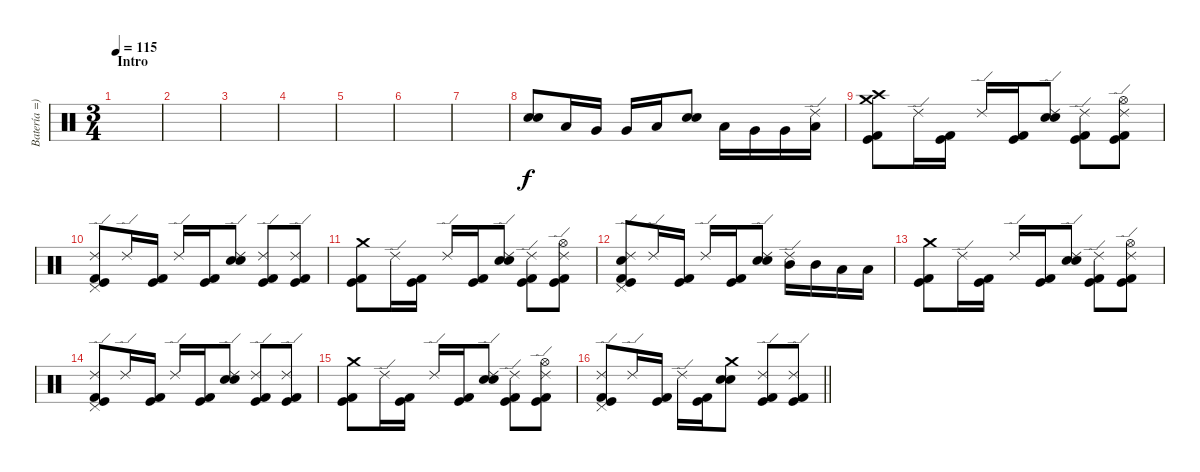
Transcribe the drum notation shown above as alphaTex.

\track ("Batería =)" "Batería =)") {instrument percussion}
\staff {score}
\articulation defaults
\ts (3 4)
\section ("" "Intro")
\tempo 115
\clef neutral
\ks c
|
|
|
|
|
|
|
("Electric Snare (hit)" "Snare (hit) 2").8 "Low Tom (hit)".16 "Very Low Tom (hit)".16 "Very Low Tom (hit)".16 "Low Tom (hit)".16 ("Electric Snare (hit)" "Snare (hit) 2").8 "Low Tom (hit)".16 "Very Low Tom (hit)".16 "Very Low Tom (hit)".16 ("Ride (edge) 2" "Low Tom (hit)").16 |
("Crash high (hit)" "Crash medium (hit)" "Kick (hit)" "Kick (hit) 2").8 "Ride (edge) 2".16 ("Kick (hit)" "Kick (hit) 2").16 "Ride (edge) 2".16 ("Kick (hit)" "Kick (hit) 2").16 ("Ride (edge) 2" "Electric Snare (hit)" "Snare (hit) 2").8 ("Ride (edge) 2" "Kick (hit) 2" "Kick (hit)").8 ("Ride (edge) 2" "Hi-Hat (open)" "Kick (hit) 2" "Kick (hit)").8 |
("Ride (edge) 2" "Pedal Hi-Hat (hit)" "Kick (hit)" "Kick (hit) 2").8 "Ride (edge) 2".16 ("Kick (hit)" "Kick (hit) 2").16 "Ride (edge) 2".16 ("Kick (hit)" "Kick (hit) 2").16 ("Ride (edge) 2" "Electric Snare (hit)" "Snare (hit) 2").8 ("Ride (edge) 2" "Kick (hit) 2" "Kick (hit)").8 ("Ride (edge) 2" "Kick (hit) 2" "Kick (hit)").8 |
("Crash medium (hit)" "Kick (hit)" "Kick (hit) 2").8 "Ride (edge) 2".16 ("Kick (hit)" "Kick (hit) 2").16 "Ride (edge) 2".16 ("Kick (hit)" "Kick (hit) 2").16 ("Ride (edge) 2" "Electric Snare (hit)" "Snare (hit) 2").8 ("Ride (edge) 2" "Kick (hit) 2" "Kick (hit)").8 ("Ride (edge) 2" "Hi-Hat (open)" "Kick (hit) 2" "Kick (hit)").8 |
("Ride (edge) 2" "Pedal Hi-Hat (hit)" "Snare (hit) 2" "Kick (hit)" "Kick (hit) 2").8 "Ride (edge) 2".16 ("Kick (hit)" "Kick (hit) 2").16 "Ride (edge) 2".16 ("Kick (hit)" "Kick (hit) 2").16 ("Ride (edge) 2" "Electric Snare (hit)" "Snare (hit) 2").8 ("Ride (edge) 2" "Mid Tom (hit)").16 "Mid Tom (hit)".16 "Low Tom (hit)".16 "Low Tom (hit)".16 |
("Crash medium (hit)" "Kick (hit)" "Kick (hit) 2").8 "Ride (edge) 2".16 ("Kick (hit)" "Kick (hit) 2").16 "Ride (edge) 2".16 ("Kick (hit)" "Kick (hit) 2").16 ("Ride (edge) 2" "Electric Snare (hit)" "Snare (hit) 2").8 ("Ride (edge) 2" "Kick (hit) 2" "Kick (hit)").8 ("Ride (edge) 2" "Hi-Hat (open)" "Kick (hit) 2" "Kick (hit)").8 |
("Ride (edge) 2" "Pedal Hi-Hat (hit)" "Kick (hit)" "Kick (hit) 2").8 "Ride (edge) 2".16 ("Kick (hit)" "Kick (hit) 2").16 "Ride (edge) 2".16 ("Kick (hit)" "Kick (hit) 2").16 ("Ride (edge) 2" "Electric Snare (hit)" "Snare (hit) 2").8 ("Ride (edge) 2" "Kick (hit) 2" "Kick (hit)").8 ("Ride (edge) 2" "Kick (hit) 2" "Kick (hit)").8 |
("Crash medium (hit)" "Kick (hit)" "Kick (hit) 2").8 "Ride (edge) 2".16 ("Kick (hit)" "Kick (hit) 2").16 "Ride (edge) 2".16 ("Kick (hit)" "Kick (hit) 2").16 ("Ride (edge) 2" "Electric Snare (hit)" "Snare (hit) 2").8 ("Ride (edge) 2" "Kick (hit) 2" "Kick (hit)").8 ("Ride (edge) 2" "Hi-Hat (open)" "Kick (hit) 2" "Kick (hit)").8 |
\barLineRight lightlight
("Ride (edge) 2" "Pedal Hi-Hat (hit)" "Kick (hit)" "Kick (hit) 2").8 "Ride (edge) 2".16 ("Kick (hit)" "Kick (hit) 2").16 "Ride (edge) 2".16 ("Kick (hit)" "Kick (hit) 2").16 ("Crash medium (hit)" "Electric Snare (hit)" "Snare (hit) 2").8 ("Ride (edge) 2" "Kick (hit) 2" "Kick (hit)").8 ("Ride (edge) 2" "Kick (hit) 2" "Kick (hit)").8
